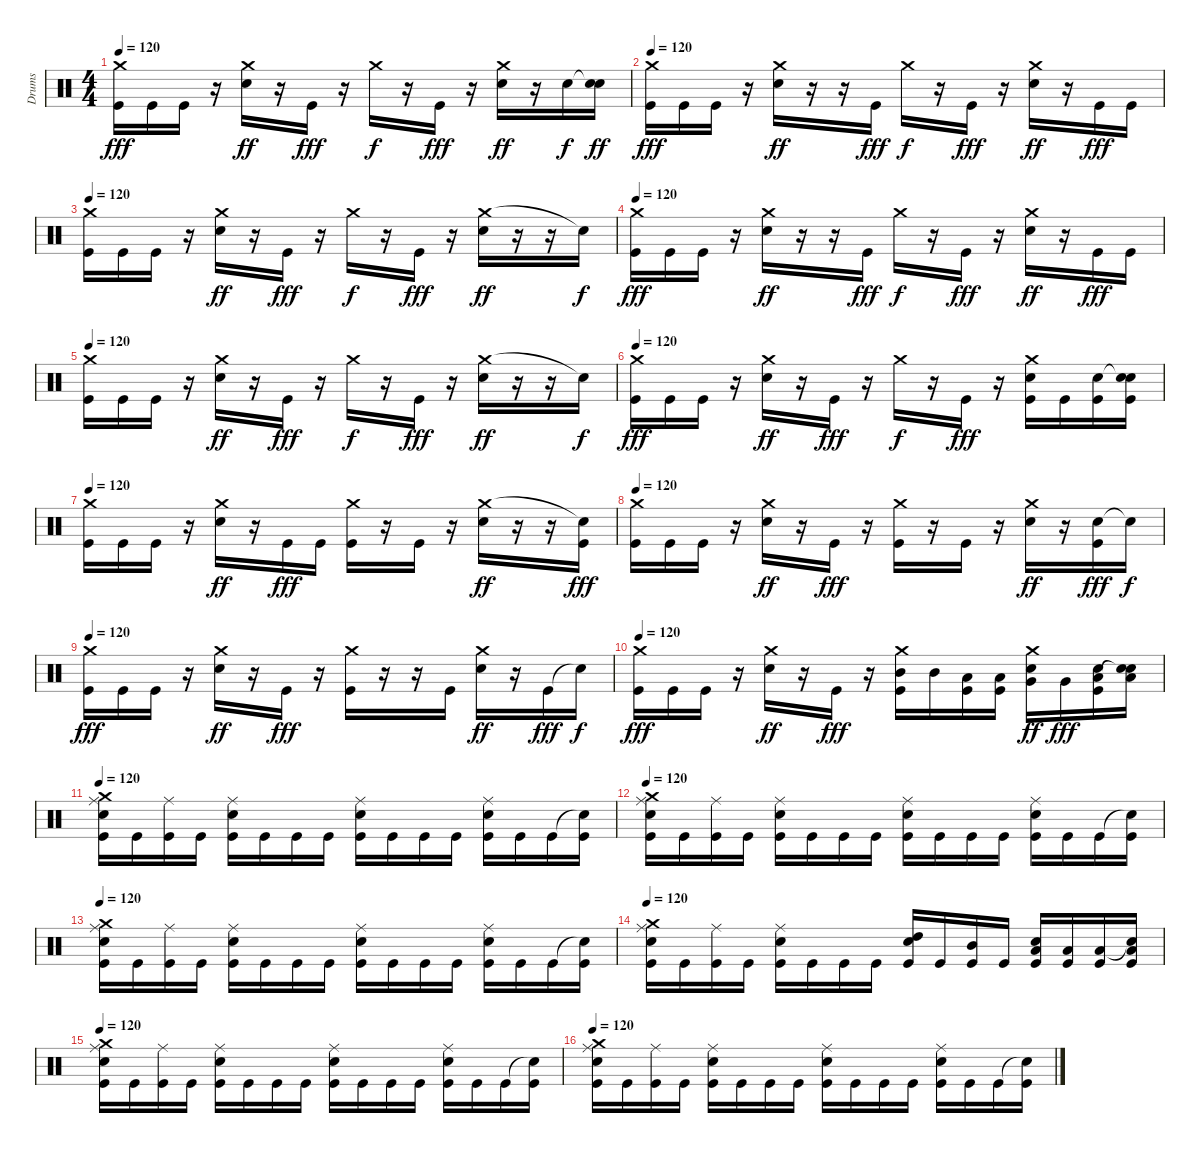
\track ("Drums" "Drums") {instrument percussion}
\staff {score}
\articulation defaults
\ts (4 4)
\tempo 120
\clef neutral
\ks c
("Crash medium (hit)" "Kick (hit)").16{dy fff} "Kick (hit)".16 "Kick (hit)".16 r.16 ("Crash medium (hit)" "Electric Snare (hit)").16{dy ff} r.16 "Kick (hit)".16{dy fff} r.16 "Crash medium (hit)".16{dy f} r.16 "Kick (hit)".16{dy fff} r.16 ("Crash medium (hit)" "Electric Snare (hit)").16{dy ff} r.16 "Electric Snare (hit)".16{dy f} ("Snare (hit)"{t} "Electric Snare (hit)").16{dy ff} |
\tempo 120
("Crash medium (hit)" "Kick (hit)").16{dy fff} "Kick (hit)".16 "Kick (hit)".16 r.16 ("Crash medium (hit)" "Electric Snare (hit)").16{dy ff} r.16 r.16 "Kick (hit)".16{dy fff} "Crash medium (hit)".16{dy f} r.16 "Kick (hit)".16{dy fff} r.16 ("Crash medium (hit)" "Electric Snare (hit)").16{dy ff} r.16 "Kick (hit)".16{dy fff} "Kick (hit)".16 |
\tempo 120
("Crash medium (hit)" "Kick (hit)").16 "Kick (hit)".16 "Kick (hit)".16 r.16 ("Crash medium (hit)" "Electric Snare (hit)").16{dy ff} r.16 "Kick (hit)".16{dy fff} r.16 "Crash medium (hit)".16{dy f} r.16 "Kick (hit)".16{dy fff} r.16 ("Crash medium (hit)" "Electric Snare (hit)").16{dy ff} r.16 r.16 "Snare (hit)"{t}.16{dy f} |
\tempo 120
("Crash medium (hit)" "Kick (hit)").16{dy fff} "Kick (hit)".16 "Kick (hit)".16 r.16 ("Crash medium (hit)" "Electric Snare (hit)").16{dy ff} r.16 r.16 "Kick (hit)".16{dy fff} "Crash medium (hit)".16{dy f} r.16 "Kick (hit)".16{dy fff} r.16 ("Crash medium (hit)" "Electric Snare (hit)").16{dy ff} r.16 "Kick (hit)".16{dy fff} "Kick (hit)".16 |
\tempo 120
("Crash medium (hit)" "Kick (hit)").16 "Kick (hit)".16 "Kick (hit)".16 r.16 ("Crash medium (hit)" "Electric Snare (hit)").16{dy ff} r.16 "Kick (hit)".16{dy fff} r.16 "Crash medium (hit)".16{dy f} r.16 "Kick (hit)".16{dy fff} r.16 ("Crash medium (hit)" "Electric Snare (hit)").16{dy ff} r.16 r.16 "Snare (hit)"{t}.16{dy f} |
\tempo 120
("Crash medium (hit)" "Kick (hit)").16{dy fff} "Kick (hit)".16 "Kick (hit)".16 r.16 ("Crash medium (hit)" "Electric Snare (hit)").16{dy ff} r.16 "Kick (hit)".16{dy fff} r.16 "Crash medium (hit)".16{dy f} r.16 "Kick (hit)".16{dy fff} r.16 ("Crash medium (hit)" "Electric Snare (hit)" "Kick (hit)").16 "Kick (hit)".16 ("Electric Snare (hit)" "Kick (hit)").16 ("Snare (hit)"{t} "Electric Snare (hit)" "Kick (hit)").16 |
\tempo 120
("Crash medium (hit)" "Kick (hit)").16 "Kick (hit)".16 "Kick (hit)".16 r.16 ("Crash medium (hit)" "Electric Snare (hit)").16{dy ff} r.16 "Kick (hit)".16{dy fff} "Kick (hit)".16 ("Crash medium (hit)" "Kick (hit)").16 r.16 "Kick (hit)".16 r.16 ("Crash medium (hit)" "Electric Snare (hit)").16{dy ff} r.16 r.16 ("Snare (hit)"{t} "Kick (hit)").16{dy fff} |
\tempo 120
("Crash medium (hit)" "Kick (hit)").16 "Kick (hit)".16 "Kick (hit)".16 r.16 ("Crash medium (hit)" "Electric Snare (hit)").16{dy ff} r.16 "Kick (hit)".16{dy fff} r.16 ("Crash medium (hit)" "Kick (hit)").16 r.16 "Kick (hit)".16 r.16 ("Crash medium (hit)" "Electric Snare (hit)").16{dy ff} r.16 ("Electric Snare (hit)" "Kick (hit)").16{dy fff} "Snare (hit)"{t}.16{dy f} |
\tempo 120
("Crash medium (hit)" "Kick (hit)").16{dy fff} "Kick (hit)".16 "Kick (hit)".16 r.16 ("Crash medium (hit)" "Electric Snare (hit)").16{dy ff} r.16 "Kick (hit)".16{dy fff} r.16 ("Crash medium (hit)" "Kick (hit)").16 r.16 r.16 "Kick (hit)".16 ("Crash medium (hit)" "Electric Snare (hit)").16{dy ff} r.16 "Kick (hit)".16{dy fff} "Snare (hit)"{t}.16{dy f} |
\tempo 120
("Crash medium (hit)" "Kick (hit)").16{dy fff} "Kick (hit)".16 "Kick (hit)".16 r.16 ("Crash medium (hit)" "Electric Snare (hit)").16{dy ff} r.16 "Kick (hit)".16{dy fff} r.16 ("Crash medium (hit)" "Mid Tom (hit)" "Kick (hit)").16 "Mid Tom (hit)".16 ("Low Tom (hit)" "Kick (hit)").16 ("Low Tom (hit)" "Kick (hit)").16 ("Crash medium (hit)" "Very Low Tom (hit)" "Electric Snare (hit)").16{dy ff} "Very Low Tom (hit)".16{dy fff} ("Low Floor Tom (hit)" "Electric Snare (hit)" "Kick (hit)").16 ("Snare (hit)"{t} "Low Floor Tom (hit)" "Electric Snare (hit)").16 |
\tempo 120
("Ride (middle)" "Crash medium (hit)" "Snare (hit) 2" "Kick (hit)").16 "Kick (hit)".16 ("Ride (middle)" "Kick (hit)").16 "Kick (hit)".16 ("Ride (middle)" "Snare (hit) 2" "Kick (hit)").16 "Kick (hit)".16 "Kick (hit)".16 "Kick (hit)".16 ("Ride (middle)" "Snare (hit) 2" "Kick (hit)").16 "Kick (hit)".16 "Kick (hit)".16 "Kick (hit)".16 ("Ride (middle)" "Snare (hit) 2" "Kick (hit)").16 "Kick (hit)".16 "Kick (hit)".16 ("Snare (hit)"{t} "Kick (hit)").16 |
\tempo 120
("Ride (middle)" "Crash medium (hit)" "Snare (hit) 2" "Kick (hit)").16 "Kick (hit)".16 ("Ride (middle)" "Kick (hit)").16 "Kick (hit)".16 ("Ride (middle)" "Snare (hit) 2" "Kick (hit)").16 "Kick (hit)".16 "Kick (hit)".16 "Kick (hit)".16 ("Ride (middle)" "Snare (hit) 2" "Kick (hit)").16 "Kick (hit)".16 "Kick (hit)".16 "Kick (hit)".16 ("Ride (middle)" "Snare (hit) 2" "Kick (hit)").16 "Kick (hit)".16 "Kick (hit)".16 ("Snare (hit)"{t} "Kick (hit)").16 |
\tempo 120
("Ride (middle)" "Crash medium (hit)" "Snare (hit) 2" "Kick (hit)").16 "Kick (hit)".16 ("Ride (middle)" "Kick (hit)").16 "Kick (hit)".16 ("Ride (middle)" "Snare (hit) 2" "Kick (hit)").16 "Kick (hit)".16 "Kick (hit)".16 "Kick (hit)".16 ("Ride (middle)" "Snare (hit) 2" "Kick (hit)").16 "Kick (hit)".16 "Kick (hit)".16 "Kick (hit)".16 ("Ride (middle)" "Snare (hit) 2" "Kick (hit)").16 "Kick (hit)".16 "Kick (hit)".16 ("Snare (hit)"{t} "Kick (hit)").16 |
\tempo 120
("Ride (middle)" "Crash medium (hit)" "Snare (hit) 2" "Kick (hit)").16 "Kick (hit)".16 ("Ride (middle)" "Kick (hit)").16 "Kick (hit)".16 ("Ride (middle)" "Snare (hit) 2" "Kick (hit)").16 "Kick (hit)".16 "Kick (hit)".16 "Kick (hit)".16 ("High Tom (hit)" "Snare (hit) 2" "Kick (hit)").16 "Kick (hit)".16 ("Mid Tom (hit)" "Kick (hit)").16 "Kick (hit)".16 ("Low Tom (hit)" "Snare (hit) 2" "Kick (hit)").16 ("Low Tom (hit)" "Kick (hit)").16 ("Low Floor Tom (hit)" "Kick (hit)").16 ("Snare (hit)"{t} "Low Floor Tom (hit)" "Kick (hit)").16 |
\tempo 120
("Ride (middle)" "Crash medium (hit)" "Snare (hit) 2" "Kick (hit)").16 "Kick (hit)".16 ("Ride (middle)" "Kick (hit)").16 "Kick (hit)".16 ("Ride (middle)" "Snare (hit) 2" "Kick (hit)").16 "Kick (hit)".16 "Kick (hit)".16 "Kick (hit)".16 ("Ride (middle)" "Snare (hit) 2" "Kick (hit)").16 "Kick (hit)".16 "Kick (hit)".16 "Kick (hit)".16 ("Ride (middle)" "Snare (hit) 2" "Kick (hit)").16 "Kick (hit)".16 "Kick (hit)".16 ("Snare (hit)"{t} "Kick (hit)").16 |
\tempo 120
("Ride (middle)" "Crash medium (hit)" "Snare (hit) 2" "Kick (hit)").16 "Kick (hit)".16 ("Ride (middle)" "Kick (hit)").16 "Kick (hit)".16 ("Ride (middle)" "Snare (hit) 2" "Kick (hit)").16 "Kick (hit)".16 "Kick (hit)".16 "Kick (hit)".16 ("Ride (middle)" "Snare (hit) 2" "Kick (hit)").16 "Kick (hit)".16 "Kick (hit)".16 "Kick (hit)".16 ("Ride (middle)" "Snare (hit) 2" "Kick (hit)").16 "Kick (hit)".16 "Kick (hit)".16 ("Snare (hit)"{t} "Kick (hit)").16
